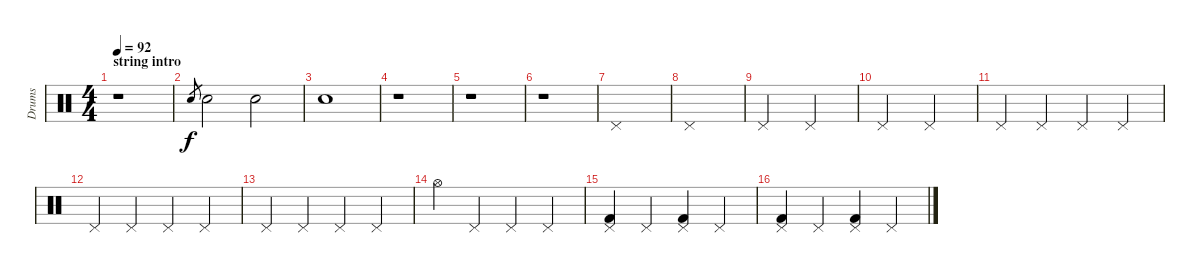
\track ("Drums" "Drums") {instrument percussion}
\staff {score}
\articulation defaults
\ts (4 4)
\section ("" "string intro")
\tempo 92
\clef neutral
\ks c
r.1{dy f} |
"Snare (hit) 2".8{gr} "Snare (hit) 2".2 "Snare (hit) 2".2 |
"Snare (hit) 2".1 |
r.1 |
r.1 |
r.1 |
"Pedal Hi-Hat (hit)".1 |
"Pedal Hi-Hat (hit)".1 |
"Pedal Hi-Hat (hit)".2 "Pedal Hi-Hat (hit)".2 |
"Pedal Hi-Hat (hit)".2 "Pedal Hi-Hat (hit)".2 |
"Pedal Hi-Hat (hit)".4 "Pedal Hi-Hat (hit)".4 "Pedal Hi-Hat (hit)".4 "Pedal Hi-Hat (hit)".4 |
"Pedal Hi-Hat (hit)".4 "Pedal Hi-Hat (hit)".4 "Pedal Hi-Hat (hit)".4 "Pedal Hi-Hat (hit)".4 |
"Pedal Hi-Hat (hit)".4 "Pedal Hi-Hat (hit)".4 "Pedal Hi-Hat (hit)".4 "Pedal Hi-Hat (hit)".4 |
"Hi-Hat (open)".4 "Pedal Hi-Hat (hit)".4 "Pedal Hi-Hat (hit)".4 "Pedal Hi-Hat (hit)".4 |
("Pedal Hi-Hat (hit)" "Kick (hit) 2").4 "Pedal Hi-Hat (hit)".4 ("Pedal Hi-Hat (hit)" "Kick (hit) 2").4 "Pedal Hi-Hat (hit)".4 |
("Pedal Hi-Hat (hit)" "Kick (hit) 2").4 "Pedal Hi-Hat (hit)".4 ("Pedal Hi-Hat (hit)" "Kick (hit) 2").4 "Pedal Hi-Hat (hit)".4
